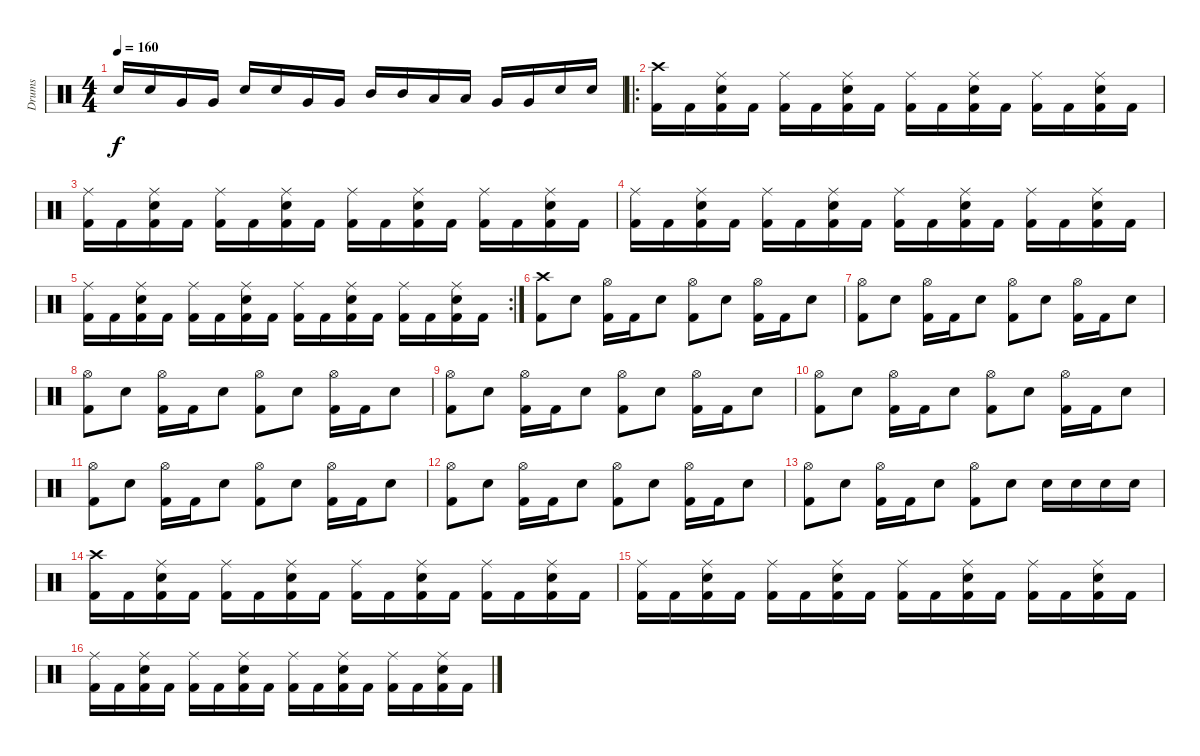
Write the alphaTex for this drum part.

\track ("Drums" "Drums") {instrument percussion}
\staff {score}
\articulation defaults
\ts (4 4)
\tempo 160
\clef neutral
\ks c "Electric Snare (hit)".16{dy f} "Electric Snare (hit)".16 "Very Low Tom (hit)".16 "Very Low Tom (hit)".16 "Electric Snare (hit)".16 "Electric Snare (hit)".16 "Very Low Tom (hit)".16 "Very Low Tom (hit)".16 "Mid Tom (hit)".16 "Mid Tom (hit)".16 "Low Tom (hit)".16 "Low Tom (hit)".16 "Very Low Tom (hit)".16 "Very Low Tom (hit)".16 "Electric Snare (hit)".16 "Electric Snare (hit)".16
|
\ro
("Crash high (hit)" "Kick (hit) 2").16 "Kick (hit) 2".16 ("Ride (middle)" "Electric Snare (hit)" "Kick (hit) 2").16 "Kick (hit) 2".16 ("Ride (middle)" "Kick (hit) 2").16 "Kick (hit) 2".16 ("Ride (middle)" "Electric Snare (hit)" "Kick (hit) 2").16 "Kick (hit) 2".16 ("Ride (middle)" "Kick (hit) 2").16 "Kick (hit) 2".16 ("Ride (middle)" "Electric Snare (hit)" "Kick (hit) 2").16 "Kick (hit) 2".16 ("Ride (middle)" "Kick (hit) 2").16 "Kick (hit) 2".16 ("Ride (middle)" "Electric Snare (hit)" "Kick (hit) 2").16 "Kick (hit) 2".16 |
("Ride (middle)" "Kick (hit) 2").16 "Kick (hit) 2".16 ("Ride (middle)" "Electric Snare (hit)" "Kick (hit) 2").16 "Kick (hit) 2".16 ("Ride (middle)" "Kick (hit) 2").16 "Kick (hit) 2".16 ("Ride (middle)" "Electric Snare (hit)" "Kick (hit) 2").16 "Kick (hit) 2".16 ("Ride (middle)" "Kick (hit) 2").16 "Kick (hit) 2".16 ("Ride (middle)" "Electric Snare (hit)" "Kick (hit) 2").16 "Kick (hit) 2".16 ("Ride (middle)" "Kick (hit) 2").16 "Kick (hit) 2".16 ("Ride (middle)" "Electric Snare (hit)" "Kick (hit) 2").16 "Kick (hit) 2".16 |
("Ride (middle)" "Kick (hit) 2").16 "Kick (hit) 2".16 ("Ride (middle)" "Electric Snare (hit)" "Kick (hit) 2").16 "Kick (hit) 2".16 ("Ride (middle)" "Kick (hit) 2").16 "Kick (hit) 2".16 ("Ride (middle)" "Electric Snare (hit)" "Kick (hit) 2").16 "Kick (hit) 2".16 ("Ride (middle)" "Kick (hit) 2").16 "Kick (hit) 2".16 ("Ride (middle)" "Electric Snare (hit)" "Kick (hit) 2").16 "Kick (hit) 2".16 ("Ride (middle)" "Kick (hit) 2").16 "Kick (hit) 2".16 ("Ride (middle)" "Electric Snare (hit)" "Kick (hit) 2").16 "Kick (hit) 2".16 |
\rc 2
("Ride (middle)" "Kick (hit) 2").16 "Kick (hit) 2".16 ("Ride (middle)" "Electric Snare (hit)" "Kick (hit) 2").16 "Kick (hit) 2".16 ("Ride (middle)" "Kick (hit) 2").16 "Kick (hit) 2".16 ("Ride (middle)" "Electric Snare (hit)" "Kick (hit) 2").16 "Kick (hit) 2".16 ("Ride (middle)" "Kick (hit) 2").16 "Kick (hit) 2".16 ("Ride (middle)" "Electric Snare (hit)" "Kick (hit) 2").16 "Kick (hit) 2".16 ("Ride (middle)" "Kick (hit) 2").16 "Kick (hit) 2".16 ("Ride (middle)" "Electric Snare (hit)" "Kick (hit) 2").16 "Kick (hit) 2".16 |
("Crash high (hit)" "Kick (hit) 2").8 "Electric Snare (hit)".8 ("Hi-Hat (open)" "Kick (hit) 2").16 "Kick (hit) 2".16 "Electric Snare (hit)".8 ("Hi-Hat (open)" "Kick (hit) 2").8 "Electric Snare (hit)".8 ("Hi-Hat (open)" "Kick (hit) 2").16 "Kick (hit) 2".16 "Electric Snare (hit)".8 |
("Hi-Hat (open)" "Kick (hit) 2").8 "Electric Snare (hit)".8 ("Hi-Hat (open)" "Kick (hit) 2").16 "Kick (hit) 2".16 "Electric Snare (hit)".8 ("Hi-Hat (open)" "Kick (hit) 2").8 "Electric Snare (hit)".8 ("Hi-Hat (open)" "Kick (hit) 2").16 "Kick (hit) 2".16 "Electric Snare (hit)".8 |
("Hi-Hat (open)" "Kick (hit) 2").8 "Electric Snare (hit)".8 ("Hi-Hat (open)" "Kick (hit) 2").16 "Kick (hit) 2".16 "Electric Snare (hit)".8 ("Hi-Hat (open)" "Kick (hit) 2").8 "Electric Snare (hit)".8 ("Hi-Hat (open)" "Kick (hit) 2").16 "Kick (hit) 2".16 "Electric Snare (hit)".8 |
("Hi-Hat (open)" "Kick (hit) 2").8 "Electric Snare (hit)".8 ("Hi-Hat (open)" "Kick (hit) 2").16 "Kick (hit) 2".16 "Electric Snare (hit)".8 ("Hi-Hat (open)" "Kick (hit) 2").8 "Electric Snare (hit)".8 ("Hi-Hat (open)" "Kick (hit) 2").16 "Kick (hit) 2".16 "Electric Snare (hit)".8 |
("Hi-Hat (open)" "Kick (hit) 2").8 "Electric Snare (hit)".8 ("Hi-Hat (open)" "Kick (hit) 2").16 "Kick (hit) 2".16 "Electric Snare (hit)".8 ("Hi-Hat (open)" "Kick (hit) 2").8 "Electric Snare (hit)".8 ("Hi-Hat (open)" "Kick (hit) 2").16 "Kick (hit) 2".16 "Electric Snare (hit)".8 |
("Hi-Hat (open)" "Kick (hit) 2").8 "Electric Snare (hit)".8 ("Hi-Hat (open)" "Kick (hit) 2").16 "Kick (hit) 2".16 "Electric Snare (hit)".8 ("Hi-Hat (open)" "Kick (hit) 2").8 "Electric Snare (hit)".8 ("Hi-Hat (open)" "Kick (hit) 2").16 "Kick (hit) 2".16 "Electric Snare (hit)".8 |
("Hi-Hat (open)" "Kick (hit) 2").8 "Electric Snare (hit)".8 ("Hi-Hat (open)" "Kick (hit) 2").16 "Kick (hit) 2".16 "Electric Snare (hit)".8 ("Hi-Hat (open)" "Kick (hit) 2").8 "Electric Snare (hit)".8 ("Hi-Hat (open)" "Kick (hit) 2").16 "Kick (hit) 2".16 "Electric Snare (hit)".8 |
("Hi-Hat (open)" "Kick (hit) 2").8 "Electric Snare (hit)".8 ("Hi-Hat (open)" "Kick (hit) 2").16 "Kick (hit) 2".16 "Electric Snare (hit)".8 ("Hi-Hat (open)" "Kick (hit) 2").8 "Electric Snare (hit)".8 "Electric Snare (hit)".16 "Electric Snare (hit)".16 "Electric Snare (hit)".16 "Electric Snare (hit)".16 |
("Crash high (hit)" "Kick (hit) 2").16 "Kick (hit) 2".16 ("Ride (middle)" "Electric Snare (hit)" "Kick (hit) 2").16 "Kick (hit) 2".16 ("Ride (middle)" "Kick (hit) 2").16 "Kick (hit) 2".16 ("Ride (middle)" "Electric Snare (hit)" "Kick (hit) 2").16 "Kick (hit) 2".16 ("Ride (middle)" "Kick (hit) 2").16 "Kick (hit) 2".16 ("Ride (middle)" "Electric Snare (hit)" "Kick (hit) 2").16 "Kick (hit) 2".16 ("Ride (middle)" "Kick (hit) 2").16 "Kick (hit) 2".16 ("Ride (middle)" "Electric Snare (hit)" "Kick (hit) 2").16 "Kick (hit) 2".16 |
("Ride (middle)" "Kick (hit) 2").16 "Kick (hit) 2".16 ("Ride (middle)" "Electric Snare (hit)" "Kick (hit) 2").16 "Kick (hit) 2".16 ("Ride (middle)" "Kick (hit) 2").16 "Kick (hit) 2".16 ("Ride (middle)" "Electric Snare (hit)" "Kick (hit) 2").16 "Kick (hit) 2".16 ("Ride (middle)" "Kick (hit) 2").16 "Kick (hit) 2".16 ("Ride (middle)" "Electric Snare (hit)" "Kick (hit) 2").16 "Kick (hit) 2".16 ("Ride (middle)" "Kick (hit) 2").16 "Kick (hit) 2".16 ("Ride (middle)" "Electric Snare (hit)" "Kick (hit) 2").16 "Kick (hit) 2".16 |
("Ride (middle)" "Kick (hit) 2").16 "Kick (hit) 2".16 ("Ride (middle)" "Electric Snare (hit)" "Kick (hit) 2").16 "Kick (hit) 2".16 ("Ride (middle)" "Kick (hit) 2").16 "Kick (hit) 2".16 ("Ride (middle)" "Electric Snare (hit)" "Kick (hit) 2").16 "Kick (hit) 2".16 ("Ride (middle)" "Kick (hit) 2").16 "Kick (hit) 2".16 ("Ride (middle)" "Electric Snare (hit)" "Kick (hit) 2").16 "Kick (hit) 2".16 ("Ride (middle)" "Kick (hit) 2").16 "Kick (hit) 2".16 ("Ride (middle)" "Electric Snare (hit)" "Kick (hit) 2").16 "Kick (hit) 2".16
